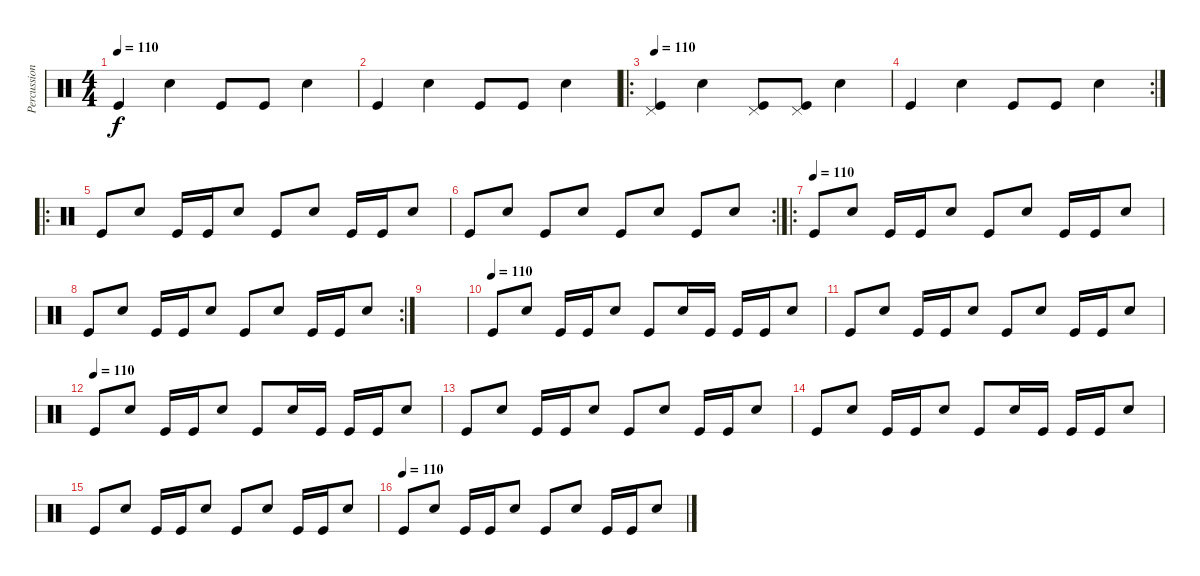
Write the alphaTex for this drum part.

\track ("Percussions" "Percussion") {instrument percussion}
\staff {score}
\articulation defaults
\ts (4 4)
\tempo 110
\clef neutral
\ks c "Kick (hit)".4{dy f} "Electric Snare (hit)".4 "Kick (hit)".8 "Kick (hit)".8 "Electric Snare (hit)".4
|
"Kick (hit)".4 "Electric Snare (hit)".4 "Kick (hit)".8 "Kick (hit)".8 "Electric Snare (hit)".4 |
\ro
\tempo 110
("Pedal Hi-Hat (hit)" "Kick (hit)").4 "Electric Snare (hit)".4 ("Pedal Hi-Hat (hit)" "Kick (hit)").8 ("Pedal Hi-Hat (hit)" "Kick (hit)").8 "Electric Snare (hit)".4 |
\rc 2 "Kick (hit)".4 "Electric Snare (hit)".4 "Kick (hit)".8 "Kick (hit)".8 "Electric Snare (hit)".4
|
\ro "Kick (hit)".8 "Electric Snare (hit)".8 "Kick (hit)".16 "Kick (hit)".16 "Electric Snare (hit)".8 "Kick (hit)".8 "Electric Snare (hit)".8 "Kick (hit)".16 "Kick (hit)".16 "Electric Snare (hit)".8
|
\rc 2 "Kick (hit)".8 "Electric Snare (hit)".8 "Kick (hit)".8 "Electric Snare (hit)".8 "Kick (hit)".8 "Electric Snare (hit)".8 "Kick (hit)".8 "Electric Snare (hit)".8
|
\ro
\tempo (110)
"Kick (hit)".8 "Electric Snare (hit)".8 "Kick (hit)".16 "Kick (hit)".16 "Electric Snare (hit)".8 "Kick (hit)".8 "Electric Snare (hit)".8 "Kick (hit)".16 "Kick (hit)".16 "Electric Snare (hit)".8 |
\rc 2 "Kick (hit)".8 "Electric Snare (hit)".8 "Kick (hit)".16 "Kick (hit)".16 "Electric Snare (hit)".8 "Kick (hit)".8 "Electric Snare (hit)".8 "Kick (hit)".16 "Kick (hit)".16 "Electric Snare (hit)".8
|
|
\tempo (110)
"Kick (hit)".8 "Electric Snare (hit)".8 "Kick (hit)".16 "Kick (hit)".16 "Electric Snare (hit)".8 "Kick (hit)".8 "Electric Snare (hit)".16 "Kick (hit)".16 "Kick (hit)".16 "Kick (hit)".16 "Electric Snare (hit)".8 |
"Kick (hit)".8 "Electric Snare (hit)".8 "Kick (hit)".16 "Kick (hit)".16 "Electric Snare (hit)".8 "Kick (hit)".8 "Electric Snare (hit)".8 "Kick (hit)".16 "Kick (hit)".16 "Electric Snare (hit)".8 |
\tempo (110)
"Kick (hit)".8 "Electric Snare (hit)".8 "Kick (hit)".16 "Kick (hit)".16 "Electric Snare (hit)".8 "Kick (hit)".8 "Electric Snare (hit)".16 "Kick (hit)".16 "Kick (hit)".16 "Kick (hit)".16 "Electric Snare (hit)".8 |
"Kick (hit)".8 "Electric Snare (hit)".8 "Kick (hit)".16 "Kick (hit)".16 "Electric Snare (hit)".8 "Kick (hit)".8 "Electric Snare (hit)".8 "Kick (hit)".16 "Kick (hit)".16 "Electric Snare (hit)".8 |
"Kick (hit)".8 "Electric Snare (hit)".8 "Kick (hit)".16 "Kick (hit)".16 "Electric Snare (hit)".8 "Kick (hit)".8 "Electric Snare (hit)".16 "Kick (hit)".16 "Kick (hit)".16 "Kick (hit)".16 "Electric Snare (hit)".8 |
"Kick (hit)".8 "Electric Snare (hit)".8 "Kick (hit)".16 "Kick (hit)".16 "Electric Snare (hit)".8 "Kick (hit)".8 "Electric Snare (hit)".8 "Kick (hit)".16 "Kick (hit)".16 "Electric Snare (hit)".8 |
\tempo (110)
"Kick (hit)".8 "Electric Snare (hit)".8 "Kick (hit)".16 "Kick (hit)".16 "Electric Snare (hit)".8 "Kick (hit)".8 "Electric Snare (hit)".8 "Kick (hit)".16 "Kick (hit)".16 "Electric Snare (hit)".8
